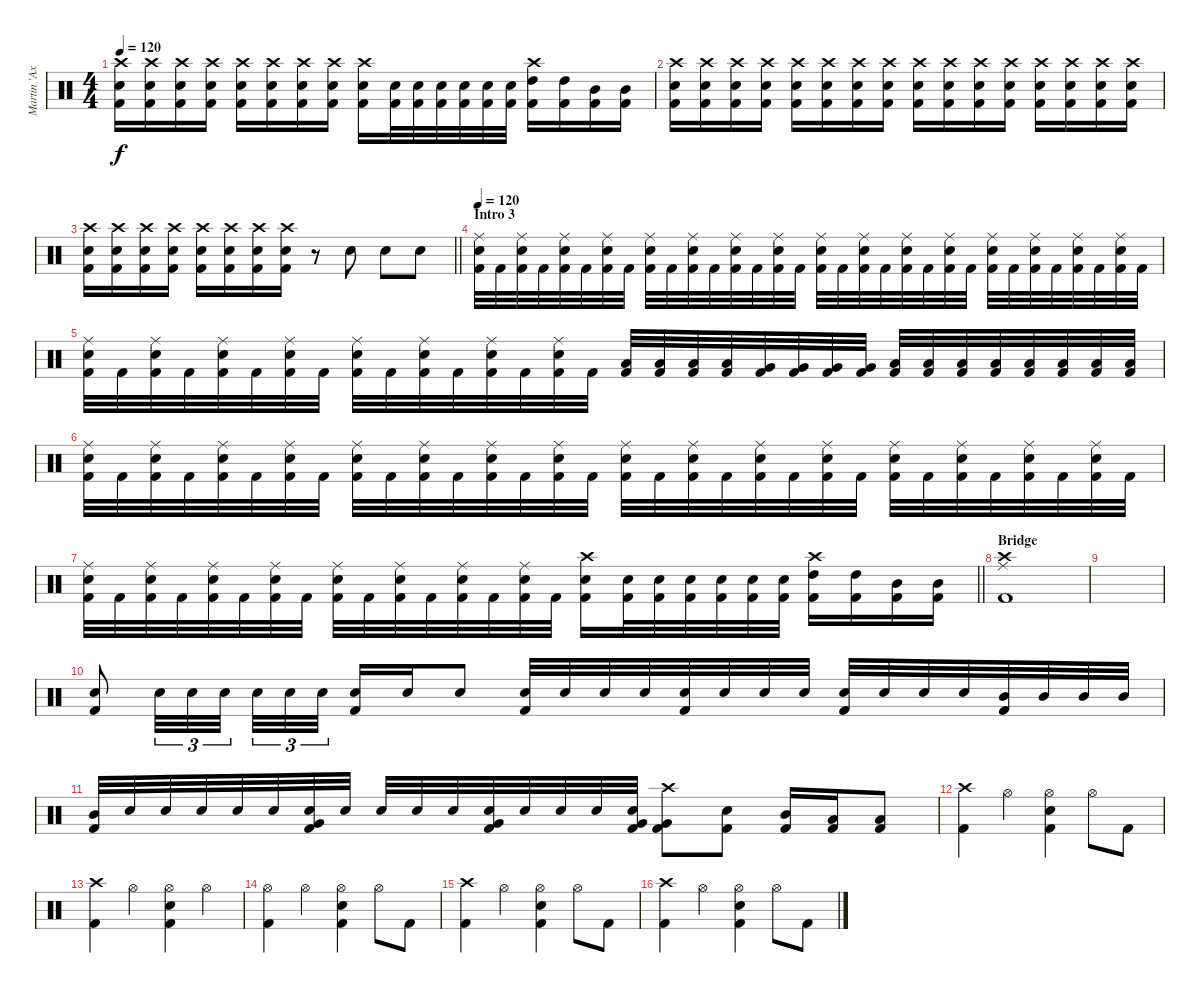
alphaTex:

\track ("Martin 'Axe' Axenrot" "Martin 'Ax") {instrument percussion}
\staff {score}
\articulation defaults
\ts (4 4)
\tempo 120
\clef neutral
\ks c
("Crash high (hit)" "Snare (hit) 2" "Kick (hit) 2").16{dy f} ("Crash high (hit)" "Snare (hit) 2" "Kick (hit) 2").16 ("Crash high (hit)" "Snare (hit) 2" "Kick (hit) 2").16 ("Crash high (hit)" "Snare (hit) 2" "Kick (hit) 2").16 ("Crash high (hit)" "Snare (hit) 2" "Kick (hit) 2").16 ("Crash high (hit)" "Snare (hit) 2" "Kick (hit) 2").16 ("Crash high (hit)" "Snare (hit) 2" "Kick (hit) 2").16 ("Crash high (hit)" "Snare (hit) 2" "Kick (hit) 2").16 ("Crash high (hit)" "Snare (hit) 2" "Kick (hit) 2").16 ("Snare (hit) 2" "Kick (hit) 2").32 ("Snare (hit) 2" "Kick (hit) 2").32 ("Snare (hit) 2" "Kick (hit) 2").32 ("Snare (hit) 2" "Kick (hit) 2").32 ("Snare (hit) 2" "Kick (hit) 2").32 ("Snare (hit) 2" "Kick (hit) 2").32 ("Crash high (hit)" "High Tom (hit)" "Kick (hit) 2").16 ("High Tom (hit)" "Kick (hit) 2").16 ("Mid Tom (hit)" "Kick (hit) 2").16 ("Mid Tom (hit)" "Kick (hit) 2").16 |
("Crash high (hit)" "Snare (hit) 2" "Kick (hit) 2").16 ("Crash high (hit)" "Snare (hit) 2" "Kick (hit) 2").16 ("Crash high (hit)" "Snare (hit) 2" "Kick (hit) 2").16 ("Crash high (hit)" "Snare (hit) 2" "Kick (hit) 2").16 ("Crash high (hit)" "Snare (hit) 2" "Kick (hit) 2").16 ("Crash high (hit)" "Snare (hit) 2" "Kick (hit) 2").16 ("Crash high (hit)" "Snare (hit) 2" "Kick (hit) 2").16 ("Crash high (hit)" "Snare (hit) 2" "Kick (hit) 2").16 ("Crash high (hit)" "Snare (hit) 2" "Kick (hit) 2").16 ("Crash high (hit)" "Snare (hit) 2" "Kick (hit) 2").16 ("Crash high (hit)" "Snare (hit) 2" "Kick (hit) 2").16 ("Crash high (hit)" "Snare (hit) 2" "Kick (hit) 2").16 ("Crash high (hit)" "Snare (hit) 2" "Kick (hit) 2").16 ("Crash high (hit)" "Snare (hit) 2" "Kick (hit) 2").16 ("Crash high (hit)" "Snare (hit) 2" "Kick (hit) 2").16 ("Crash high (hit)" "Snare (hit) 2" "Kick (hit) 2").16 |
\barLineRight lightlight
("Crash high (hit)" "Snare (hit) 2" "Kick (hit) 2").16 ("Crash high (hit)" "Snare (hit) 2" "Kick (hit) 2").16 ("Crash high (hit)" "Snare (hit) 2" "Kick (hit) 2").16 ("Crash high (hit)" "Snare (hit) 2" "Kick (hit) 2").16 ("Crash high (hit)" "Snare (hit) 2" "Kick (hit) 2").16 ("Crash high (hit)" "Snare (hit) 2" "Kick (hit) 2").16 ("Crash high (hit)" "Snare (hit) 2" "Kick (hit) 2").16 ("Crash high (hit)" "Snare (hit) 2" "Kick (hit) 2").16 r.8 "Snare (hit) 2".8 "Snare (hit) 2".8 "Snare (hit) 2".8 |
\section ("" "Intro 3")
\tempo 120
("Ride (middle)" "Snare (hit) 2" "Kick (hit) 2").32 "Kick (hit) 2".32 ("Ride (middle)" "Snare (hit) 2" "Kick (hit) 2").32 "Kick (hit) 2".32 ("Ride (middle)" "Snare (hit) 2" "Kick (hit) 2").32 "Kick (hit) 2".32 ("Ride (middle)" "Snare (hit) 2" "Kick (hit) 2").32 "Kick (hit) 2".32 ("Ride (middle)" "Snare (hit) 2" "Kick (hit) 2").32 "Kick (hit) 2".32 ("Ride (middle)" "Snare (hit) 2" "Kick (hit) 2").32 "Kick (hit) 2".32 ("Ride (middle)" "Snare (hit) 2" "Kick (hit) 2").32 "Kick (hit) 2".32 ("Ride (middle)" "Snare (hit) 2" "Kick (hit) 2").32 "Kick (hit) 2".32 ("Ride (middle)" "Snare (hit) 2" "Kick (hit) 2").32 "Kick (hit) 2".32 ("Ride (middle)" "Snare (hit) 2" "Kick (hit) 2").32 "Kick (hit) 2".32 ("Ride (middle)" "Snare (hit) 2" "Kick (hit) 2").32 "Kick (hit) 2".32 ("Ride (middle)" "Snare (hit) 2" "Kick (hit) 2").32 "Kick (hit) 2".32 ("Ride (middle)" "Snare (hit) 2" "Kick (hit) 2").32 "Kick (hit) 2".32 ("Ride (middle)" "Snare (hit) 2" "Kick (hit) 2").32 "Kick (hit) 2".32 ("Ride (middle)" "Snare (hit) 2" "Kick (hit) 2").32 "Kick (hit) 2".32 ("Ride (middle)" "Snare (hit) 2" "Kick (hit) 2").32 "Kick (hit) 2".32 |
("Ride (middle)" "Snare (hit) 2" "Kick (hit) 2").32 "Kick (hit) 2".32 ("Ride (middle)" "Snare (hit) 2" "Kick (hit) 2").32 "Kick (hit) 2".32 ("Ride (middle)" "Snare (hit) 2" "Kick (hit) 2").32 "Kick (hit) 2".32 ("Ride (middle)" "Snare (hit) 2" "Kick (hit) 2").32 "Kick (hit) 2".32 ("Ride (middle)" "Snare (hit) 2" "Kick (hit) 2").32 "Kick (hit) 2".32 ("Ride (middle)" "Snare (hit) 2" "Kick (hit) 2").32 "Kick (hit) 2".32 ("Ride (middle)" "Snare (hit) 2" "Kick (hit) 2").32 "Kick (hit) 2".32 ("Ride (middle)" "Snare (hit) 2" "Kick (hit) 2").32 "Kick (hit) 2".32 ("Low Tom (hit)" "Kick (hit) 2").32 ("Low Tom (hit)" "Kick (hit) 2").32 ("Low Tom (hit)" "Kick (hit) 2").32 ("Low Tom (hit)" "Kick (hit) 2").32 ("Very Low Tom (hit)" "Kick (hit) 2").32 ("Very Low Tom (hit)" "Kick (hit) 2").32 ("Very Low Tom (hit)" "Kick (hit) 2").32 ("Very Low Tom (hit)" "Kick (hit) 2").32 ("Low Floor Tom (hit)" "Kick (hit) 2").32 ("Low Floor Tom (hit)" "Kick (hit) 2").32 ("Low Floor Tom (hit)" "Kick (hit) 2").32 ("Low Floor Tom (hit)" "Kick (hit) 2").32 ("Low Floor Tom (hit)" "Kick (hit) 2").32 ("Low Floor Tom (hit)" "Kick (hit) 2").32 ("Low Floor Tom (hit)" "Kick (hit) 2").32 ("Low Floor Tom (hit)" "Kick (hit) 2").32 |
("Ride (middle)" "Snare (hit) 2" "Kick (hit) 2").32 "Kick (hit) 2".32 ("Ride (middle)" "Snare (hit) 2" "Kick (hit) 2").32 "Kick (hit) 2".32 ("Ride (middle)" "Snare (hit) 2" "Kick (hit) 2").32 "Kick (hit) 2".32 ("Ride (middle)" "Snare (hit) 2" "Kick (hit) 2").32 "Kick (hit) 2".32 ("Ride (middle)" "Snare (hit) 2" "Kick (hit) 2").32 "Kick (hit) 2".32 ("Ride (middle)" "Snare (hit) 2" "Kick (hit) 2").32 "Kick (hit) 2".32 ("Ride (middle)" "Snare (hit) 2" "Kick (hit) 2").32 "Kick (hit) 2".32 ("Ride (middle)" "Snare (hit) 2" "Kick (hit) 2").32 "Kick (hit) 2".32 ("Ride (middle)" "Snare (hit) 2" "Kick (hit) 2").32 "Kick (hit) 2".32 ("Ride (middle)" "Snare (hit) 2" "Kick (hit) 2").32 "Kick (hit) 2".32 ("Ride (middle)" "Snare (hit) 2" "Kick (hit) 2").32 "Kick (hit) 2".32 ("Ride (middle)" "Snare (hit) 2" "Kick (hit) 2").32 "Kick (hit) 2".32 ("Ride (middle)" "Snare (hit) 2" "Kick (hit) 2").32 "Kick (hit) 2".32 ("Ride (middle)" "Snare (hit) 2" "Kick (hit) 2").32 "Kick (hit) 2".32 ("Ride (middle)" "Snare (hit) 2" "Kick (hit) 2").32 "Kick (hit) 2".32 ("Ride (middle)" "Snare (hit) 2" "Kick (hit) 2").32 "Kick (hit) 2".32 |
\barLineRight lightlight
("Ride (middle)" "Snare (hit) 2" "Kick (hit) 2").32 "Kick (hit) 2".32 ("Ride (middle)" "Snare (hit) 2" "Kick (hit) 2").32 "Kick (hit) 2".32 ("Ride (middle)" "Snare (hit) 2" "Kick (hit) 2").32 "Kick (hit) 2".32 ("Ride (middle)" "Snare (hit) 2" "Kick (hit) 2").32 "Kick (hit) 2".32 ("Ride (middle)" "Snare (hit) 2" "Kick (hit) 2").32 "Kick (hit) 2".32 ("Ride (middle)" "Snare (hit) 2" "Kick (hit) 2").32 "Kick (hit) 2".32 ("Ride (middle)" "Snare (hit) 2" "Kick (hit) 2").32 "Kick (hit) 2".32 ("Ride (middle)" "Snare (hit) 2" "Kick (hit) 2").32 "Kick (hit) 2".32 ("Crash high (hit)" "Snare (hit) 2" "Kick (hit) 2").16 ("Snare (hit) 2" "Kick (hit) 2").32 ("Snare (hit) 2" "Kick (hit) 2").32 ("Snare (hit) 2" "Kick (hit) 2").32 ("Snare (hit) 2" "Kick (hit) 2").32 ("Snare (hit) 2" "Kick (hit) 2").32 ("Snare (hit) 2" "Kick (hit) 2").32 ("Crash high (hit)" "High Tom (hit)" "Kick (hit) 2").16 ("High Tom (hit)" "Kick (hit) 2").16 ("Mid Tom (hit)" "Kick (hit) 2").16 ("Mid Tom (hit)" "Kick (hit) 2").16 |
\section ("" "Bridge")
("Crash high (hit)" "Ride (middle)" "Kick (hit) 2").1 |
|
("Snare (hit) 2" "Kick (hit) 2").8 "Snare (hit) 2".32{tu (3 2)} "Snare (hit) 2".32{tu (3 2)} "Snare (hit) 2".32{tu (3 2) beam splitsecondary} "Snare (hit) 2".32{tu (3 2)} "Snare (hit) 2".32{tu (3 2)} "Snare (hit) 2".32{tu (3 2)} ("Snare (hit) 2" "Kick (hit) 2").16 "Snare (hit) 2".16 "Snare (hit) 2".8 ("Snare (hit) 2" "Kick (hit) 2").32 "Snare (hit) 2".32 "Snare (hit) 2".32 "Snare (hit) 2".32 ("Electric Snare (hit)" "Kick (hit) 2").32 "Electric Snare (hit)".32 "Electric Snare (hit)".32 "Electric Snare (hit)".32 ("Snare (hit) 2" "Kick (hit) 2").32 "Snare (hit) 2".32 "Snare (hit) 2".32 "Snare (hit) 2".32 ("Mid Tom (hit)" "Kick (hit) 2").32 "Mid Tom (hit)".32 "Mid Tom (hit)".32 "Mid Tom (hit)".32 |
("Mid Tom (hit)" "Kick (hit) 2").32 "Snare (hit) 2".32 "Snare (hit) 2".32 "Snare (hit) 2".32 "Snare (hit) 2".32 "Snare (hit) 2".32 ("Very Low Tom (hit)" "Snare (hit) 2" "Kick (hit) 2").32 "Snare (hit) 2".32 "Snare (hit) 2".32 "Snare (hit) 2".32 "Snare (hit) 2".32 ("Very Low Tom (hit)" "Snare (hit) 2" "Kick (hit) 2").32 "Snare (hit) 2".32 "Snare (hit) 2".32 "Snare (hit) 2".32 ("Very Low Tom (hit)" "Snare (hit) 2" "Kick (hit) 2").32 ("Crash high (hit)" "Very Low Tom (hit)" "Kick (hit) 2").8 ("Snare (hit) 2" "Kick (hit) 2").8 ("Mid Tom (hit)" "Kick (hit) 2").16 ("Low Tom (hit)" "Kick (hit) 2").16 ("Low Tom (hit)" "Kick (hit) 2").8 |
("Crash high (hit)" "Kick (hit) 2").4 "Hi-Hat (open)".4 ("Hi-Hat (open)" "Snare (hit) 2" "Kick (hit) 2").4 "Hi-Hat (open)".8 "Kick (hit) 2".8 |
("Crash high (hit)" "Kick (hit) 2").4 "Hi-Hat (open)".4 ("Hi-Hat (open)" "Snare (hit) 2" "Kick (hit) 2").4 "Hi-Hat (open)".4 |
("Hi-Hat (open)" "Kick (hit) 2").4 "Hi-Hat (open)".4 ("Hi-Hat (open)" "Snare (hit) 2" "Kick (hit) 2").4 "Hi-Hat (open)".8 "Kick (hit) 2".8 |
("Crash high (hit)" "Kick (hit) 2").4 "Hi-Hat (open)".4 ("Hi-Hat (open)" "Snare (hit) 2" "Kick (hit) 2").4 "Hi-Hat (open)".8 "Kick (hit) 2".8 |
("Crash high (hit)" "Kick (hit) 2").4 "Hi-Hat (open)".4 ("Hi-Hat (open)" "Snare (hit) 2" "Kick (hit) 2").4 "Hi-Hat (open)".8 "Kick (hit) 2".8
